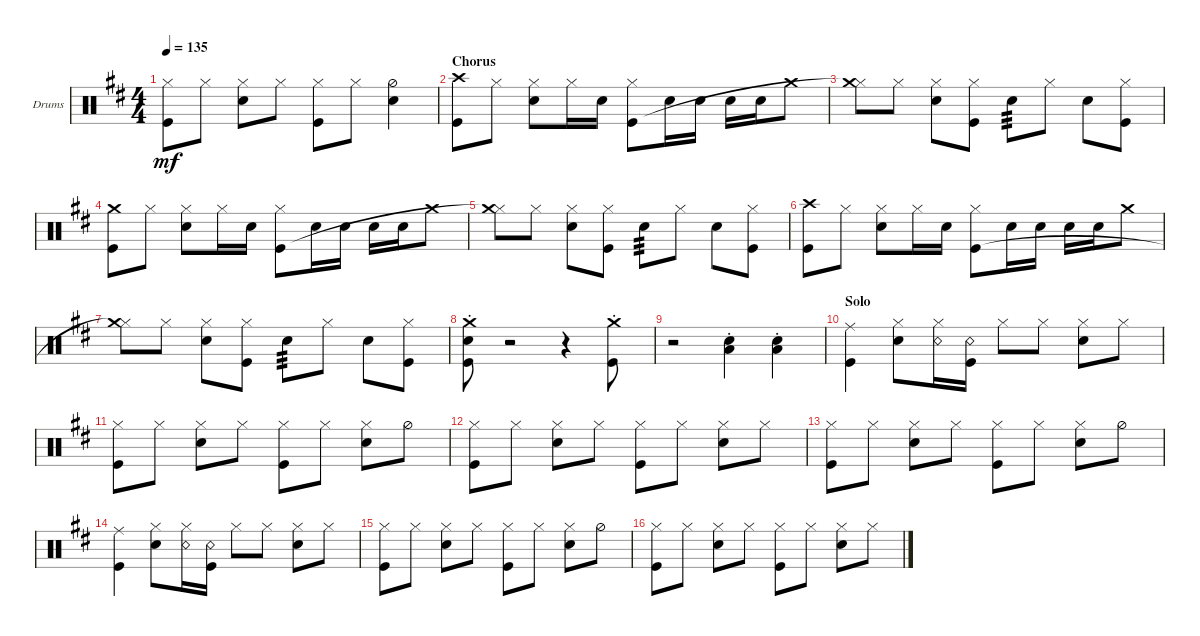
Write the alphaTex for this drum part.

\defaultSystemsLayout 4
\bracketExtendMode groupsimilarinstruments
\firstSystemTrackNameOrientation horizontal
\otherSystemsTrackNameOrientation horizontal
\track ("Drumkit" "Drums") {instrument percussion}
\staff {score}
\articulation defaults
\ts (4 4)
\tempo 135
\clef neutral
\ks bminor
("Hi-Hat (closed)" "Kick (hit)").8{dy mf} "Hi-Hat (closed)".8 ("Hi-Hat (closed)" "Snare (hit) 2").8 "Hi-Hat (closed)".8 ("Hi-Hat (closed)" "Kick (hit)").8 "Hi-Hat (closed)".8 ("Hi-Hat (half)" "Snare (hit) 2").4 |
\section ("" "Chorus")
("Crash high (hit)" "Kick (hit)").8 "Hi-Hat (closed)".8 ("Snare (hit) 2" "Hi-Hat (closed)").8 "Hi-Hat (closed)".16 "Snare (hit) 2".16 ("Hi-Hat (closed)" "Kick (hit)").8 "Snare (hit) 2".16 "Snare (hit) 2".16 "Snare (hit) 2".16 "Snare (hit) 2".16 "Crash medium (hit)".8 |
("Hi-Hat (closed)" "Crash medium (hit)"{t}).8 "Hi-Hat (closed)".8 ("Snare (hit) 2" "Hi-Hat (closed)").8 ("Kick (hit)" "Hi-Hat (closed)").8 "Snare (hit) 2".8{tp 3} "Hi-Hat (closed)".8 "Snare (hit) 2".8 ("Hi-Hat (closed)" "Kick (hit)").8 |
("Kick (hit)" "Crash medium (hit)").8 "Hi-Hat (closed)".8 ("Snare (hit) 2" "Hi-Hat (closed)").8 "Hi-Hat (closed)".16 "Snare (hit) 2".16 ("Hi-Hat (closed)" "Kick (hit)").8 "Snare (hit) 2".16 "Snare (hit) 2".16 "Snare (hit) 2".16 "Snare (hit) 2".16 "Crash medium (hit)".8 |
("Hi-Hat (closed)" "Crash medium (hit)"{t}).8 "Hi-Hat (closed)".8 ("Snare (hit) 2" "Hi-Hat (closed)").8 ("Kick (hit)" "Hi-Hat (closed)").8 "Snare (hit) 2".8{tp 3} "Hi-Hat (closed)".8 "Snare (hit) 2".8 ("Hi-Hat (closed)" "Kick (hit)").8 |
("Crash high (hit)" "Kick (hit)").8 "Hi-Hat (closed)".8 ("Snare (hit) 2" "Hi-Hat (closed)").8 "Hi-Hat (closed)".16 "Snare (hit) 2".16 ("Hi-Hat (closed)" "Kick (hit)").8 "Snare (hit) 2".16 "Snare (hit) 2".16 "Snare (hit) 2".16 "Snare (hit) 2".16 "Crash medium (hit)".8 |
("Hi-Hat (closed)" "Crash medium (hit)"{t}).8 "Hi-Hat (closed)".8 ("Snare (hit) 2" "Hi-Hat (closed)").8 ("Kick (hit)" "Hi-Hat (closed)").8 "Snare (hit) 2".8{tp 3} "Hi-Hat (closed)".8 "Snare (hit) 2".8 ("Hi-Hat (closed)" "Kick (hit)").8 |
("Crash medium (hit)"{st} "Kick (hit)"{st} "Snare (hit) 2"{st}).8 r.2 r.4 ("Crash medium (hit)"{st} "Kick (hit)").8 |
r.2 ("Snare (hit) 2"{st} "Low Tom (hit)"{st}).4 ("Snare (hit) 2"{st} "Low Tom (hit)"{st}).4 |
\section ("" "Solo")
("Ride (middle)" "Kick (hit)").4 ("Snare (hit) 2" "Hi-Hat (closed)").8 ("Hi-Hat (closed)" "Snare (rim shot)").16 ("Snare (rim shot)" "Kick (hit)").16 "Hi-Hat (closed)".8 "Hi-Hat (closed)".8 ("Hi-Hat (closed)" "Snare (hit) 2").8 "Hi-Hat (closed)".8 |
("Hi-Hat (closed)" "Kick (hit)").8 "Hi-Hat (closed)".8 ("Snare (hit) 2" "Hi-Hat (closed)").8 "Hi-Hat (closed)".8 ("Kick (hit)" "Hi-Hat (closed)").8 "Hi-Hat (closed)".8 ("Snare (hit) 2" "Hi-Hat (closed)").8 "Hi-Hat (half)".8 |
("Hi-Hat (closed)" "Kick (hit)").8 "Hi-Hat (closed)".8 ("Snare (hit) 2" "Hi-Hat (closed)").8 "Hi-Hat (closed)".8 ("Kick (hit)" "Hi-Hat (closed)").8 "Hi-Hat (closed)".8 ("Snare (hit) 2" "Hi-Hat (closed)").8 "Hi-Hat (closed)".8 |
("Hi-Hat (closed)" "Kick (hit)").8 "Hi-Hat (closed)".8 ("Snare (hit) 2" "Hi-Hat (closed)").8 "Hi-Hat (closed)".8 ("Kick (hit)" "Hi-Hat (closed)").8 "Hi-Hat (closed)".8 ("Snare (hit) 2" "Hi-Hat (closed)").8 "Hi-Hat (half)".8 |
("Ride (middle)" "Kick (hit)").4 ("Snare (hit) 2" "Hi-Hat (closed)").8 ("Hi-Hat (closed)" "Snare (rim shot)").16 ("Snare (rim shot)" "Kick (hit)").16 "Hi-Hat (closed)".8 "Hi-Hat (closed)".8 ("Hi-Hat (closed)" "Snare (hit) 2").8 "Hi-Hat (closed)".8 |
("Hi-Hat (closed)" "Kick (hit)").8 "Hi-Hat (closed)".8 ("Snare (hit) 2" "Hi-Hat (closed)").8 "Hi-Hat (closed)".8 ("Kick (hit)" "Hi-Hat (closed)").8 "Hi-Hat (closed)".8 ("Snare (hit) 2" "Hi-Hat (closed)").8 "Hi-Hat (half)".8 |
("Hi-Hat (closed)" "Kick (hit)").8 "Hi-Hat (closed)".8 ("Snare (hit) 2" "Hi-Hat (closed)").8 "Hi-Hat (closed)".8 ("Kick (hit)" "Hi-Hat (closed)").8 "Hi-Hat (closed)".8 ("Snare (hit) 2" "Hi-Hat (closed)").8 "Hi-Hat (closed)".8
